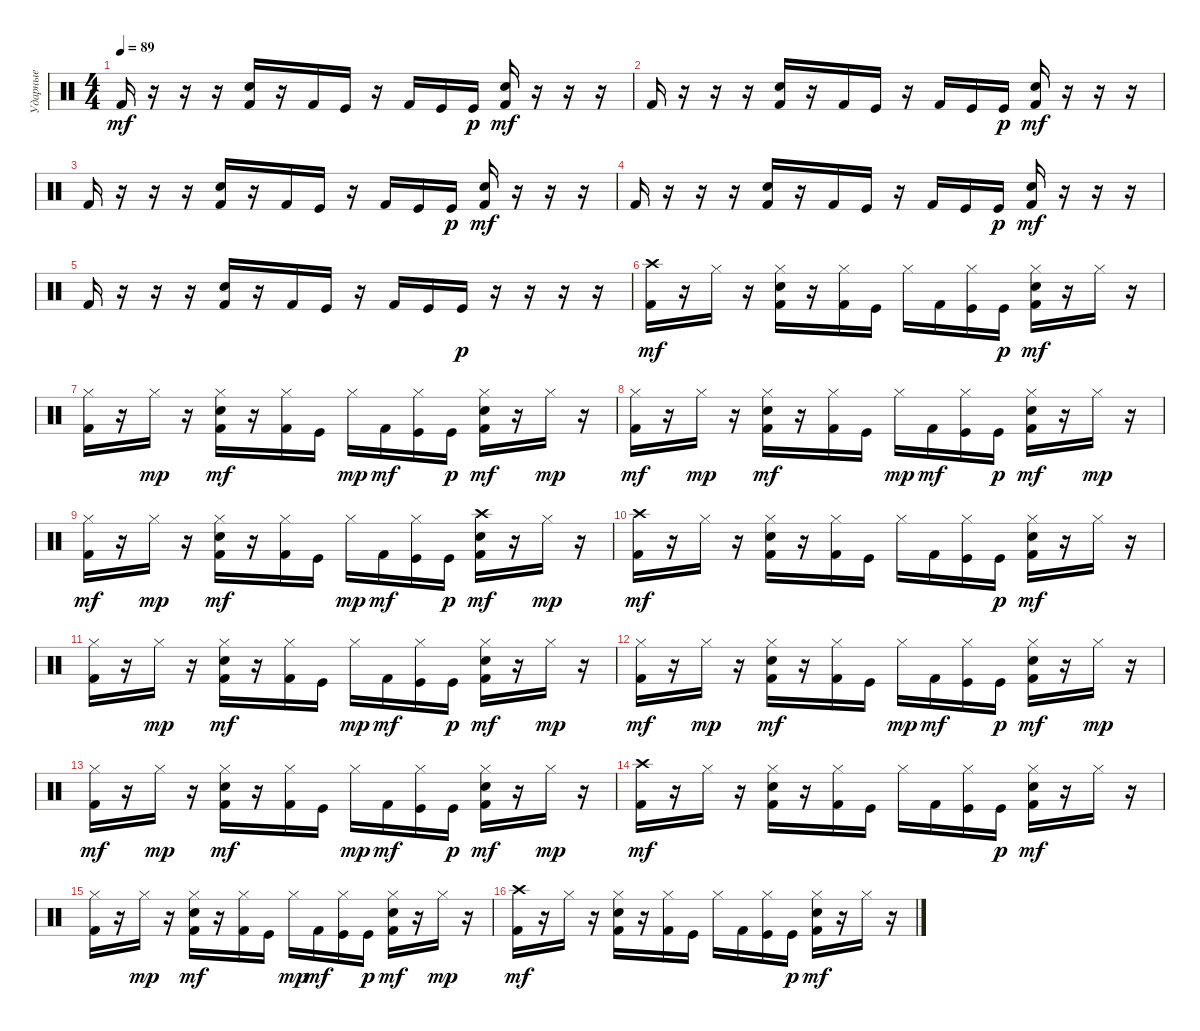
\track ("Ударные" "Ударные") {instrument percussion}
\staff {score}
\articulation defaults
\ts (4 4)
\tempo 89
\clef neutral
\ks c "Kick (hit) 2".16{dy mf}
r.16 r.16 r.16 ("Snare (hit) 2" "Kick (hit) 2").16 r.16 "Kick (hit) 2".16 "Kick (hit)".16 r.16 "Kick (hit) 2".16 "Kick (hit)".16 "Kick (hit)".16{dy p} ("Snare (hit) 2" "Kick (hit) 2").16{dy mf} r.16 r.16 r.16 |
"Kick (hit) 2".16 r.16 r.16 r.16 ("Snare (hit) 2" "Kick (hit) 2").16 r.16 "Kick (hit) 2".16 "Kick (hit)".16 r.16 "Kick (hit) 2".16 "Kick (hit)".16 "Kick (hit)".16{dy p} ("Snare (hit) 2" "Kick (hit) 2").16{dy mf} r.16 r.16 r.16 |
"Kick (hit) 2".16 r.16 r.16 r.16 ("Snare (hit) 2" "Kick (hit) 2").16 r.16 "Kick (hit) 2".16 "Kick (hit)".16 r.16 "Kick (hit) 2".16 "Kick (hit)".16 "Kick (hit)".16{dy p} ("Snare (hit) 2" "Kick (hit) 2").16{dy mf} r.16 r.16 r.16 |
"Kick (hit) 2".16 r.16 r.16 r.16 ("Snare (hit) 2" "Kick (hit) 2").16 r.16 "Kick (hit) 2".16 "Kick (hit)".16 r.16 "Kick (hit) 2".16 "Kick (hit)".16 "Kick (hit)".16{dy p} ("Snare (hit) 2" "Kick (hit) 2").16{dy mf} r.16 r.16 r.16 |
"Kick (hit) 2".16 r.16 r.16 r.16 ("Snare (hit) 2" "Kick (hit) 2").16 r.16 "Kick (hit) 2".16 "Kick (hit)".16 r.16 "Kick (hit) 2".16 "Kick (hit)".16 "Kick (hit)".16{dy p} r.16 r.16 r.16 r.16 |
("Crash high (hit)" "Kick (hit) 2").16{dy mf} r.16 "Hi-Hat (closed)".16 r.16 ("Hi-Hat (closed)" "Snare (hit) 2" "Kick (hit) 2").16 r.16 ("Hi-Hat (closed)" "Kick (hit) 2").16 "Kick (hit)".16 "Hi-Hat (closed)".16 "Kick (hit) 2".16 ("Hi-Hat (closed)" "Kick (hit)").16 "Kick (hit)".16{dy p} ("Hi-Hat (closed)" "Snare (hit) 2" "Kick (hit) 2").16{dy mf} r.16 "Hi-Hat (closed)".16 r.16 |
("Hi-Hat (closed)" "Kick (hit) 2").16 r.16 "Hi-Hat (closed)".16{dy mp} r.16 ("Hi-Hat (closed)" "Snare (hit) 2" "Kick (hit) 2").16{dy mf} r.16 ("Hi-Hat (closed)" "Kick (hit) 2").16 "Kick (hit)".16 "Hi-Hat (closed)".16{dy mp} "Kick (hit) 2".16{dy mf} ("Hi-Hat (closed)" "Kick (hit)").16 "Kick (hit)".16{dy p} ("Hi-Hat (closed)" "Snare (hit) 2" "Kick (hit) 2").16{dy mf} r.16 "Hi-Hat (closed)".16{dy mp} r.16 |
("Hi-Hat (closed)" "Kick (hit) 2").16{dy mf} r.16 "Hi-Hat (closed)".16{dy mp} r.16 ("Hi-Hat (closed)" "Snare (hit) 2" "Kick (hit) 2").16{dy mf} r.16 ("Hi-Hat (closed)" "Kick (hit) 2").16 "Kick (hit)".16 "Hi-Hat (closed)".16{dy mp} "Kick (hit) 2".16{dy mf} ("Hi-Hat (closed)" "Kick (hit)").16 "Kick (hit)".16{dy p} ("Hi-Hat (closed)" "Snare (hit) 2" "Kick (hit) 2").16{dy mf} r.16 "Hi-Hat (closed)".16{dy mp} r.16 |
("Hi-Hat (closed)" "Kick (hit) 2").16{dy mf} r.16 "Hi-Hat (closed)".16{dy mp} r.16 ("Hi-Hat (closed)" "Snare (hit) 2" "Kick (hit) 2").16{dy mf} r.16 ("Hi-Hat (closed)" "Kick (hit) 2").16 "Kick (hit)".16 "Hi-Hat (closed)".16{dy mp} "Kick (hit) 2".16{dy mf} ("Hi-Hat (closed)" "Kick (hit)").16 "Kick (hit)".16{dy p} ("Crash high (hit)" "Snare (hit) 2" "Kick (hit) 2").16{dy mf} r.16 "Hi-Hat (closed)".16{dy mp} r.16 |
("Crash high (hit)" "Kick (hit) 2").16{dy mf} r.16 "Hi-Hat (closed)".16 r.16 ("Hi-Hat (closed)" "Snare (hit) 2" "Kick (hit) 2").16 r.16 ("Hi-Hat (closed)" "Kick (hit) 2").16 "Kick (hit)".16 "Hi-Hat (closed)".16 "Kick (hit) 2".16 ("Hi-Hat (closed)" "Kick (hit)").16 "Kick (hit)".16{dy p} ("Hi-Hat (closed)" "Snare (hit) 2" "Kick (hit) 2").16{dy mf} r.16 "Hi-Hat (closed)".16 r.16 |
("Hi-Hat (closed)" "Kick (hit) 2").16 r.16 "Hi-Hat (closed)".16{dy mp} r.16 ("Hi-Hat (closed)" "Snare (hit) 2" "Kick (hit) 2").16{dy mf} r.16 ("Hi-Hat (closed)" "Kick (hit) 2").16 "Kick (hit)".16 "Hi-Hat (closed)".16{dy mp} "Kick (hit) 2".16{dy mf} ("Hi-Hat (closed)" "Kick (hit)").16 "Kick (hit)".16{dy p} ("Hi-Hat (closed)" "Snare (hit) 2" "Kick (hit) 2").16{dy mf} r.16 "Hi-Hat (closed)".16{dy mp} r.16 |
("Hi-Hat (closed)" "Kick (hit) 2").16{dy mf} r.16 "Hi-Hat (closed)".16{dy mp} r.16 ("Hi-Hat (closed)" "Snare (hit) 2" "Kick (hit) 2").16{dy mf} r.16 ("Hi-Hat (closed)" "Kick (hit) 2").16 "Kick (hit)".16 "Hi-Hat (closed)".16{dy mp} "Kick (hit) 2".16{dy mf} ("Hi-Hat (closed)" "Kick (hit)").16 "Kick (hit)".16{dy p} ("Hi-Hat (closed)" "Snare (hit) 2" "Kick (hit) 2").16{dy mf} r.16 "Hi-Hat (closed)".16{dy mp} r.16 |
("Hi-Hat (closed)" "Kick (hit) 2").16{dy mf} r.16 "Hi-Hat (closed)".16{dy mp} r.16 ("Hi-Hat (closed)" "Snare (hit) 2" "Kick (hit) 2").16{dy mf} r.16 ("Hi-Hat (closed)" "Kick (hit) 2").16 "Kick (hit)".16 "Hi-Hat (closed)".16{dy mp} "Kick (hit) 2".16{dy mf} ("Hi-Hat (closed)" "Kick (hit)").16 "Kick (hit)".16{dy p} ("Hi-Hat (closed)" "Snare (hit) 2" "Kick (hit) 2").16{dy mf} r.16 "Hi-Hat (closed)".16{dy mp} r.16 |
("Crash high (hit)" "Kick (hit) 2").16{dy mf} r.16 "Hi-Hat (closed)".16 r.16 ("Hi-Hat (closed)" "Snare (hit) 2" "Kick (hit) 2").16 r.16 ("Hi-Hat (closed)" "Kick (hit) 2").16 "Kick (hit)".16 "Hi-Hat (closed)".16 "Kick (hit) 2".16 ("Hi-Hat (closed)" "Kick (hit)").16 "Kick (hit)".16{dy p} ("Hi-Hat (closed)" "Snare (hit) 2" "Kick (hit) 2").16{dy mf} r.16 "Hi-Hat (closed)".16 r.16 |
("Hi-Hat (closed)" "Kick (hit) 2").16 r.16 "Hi-Hat (closed)".16{dy mp} r.16 ("Hi-Hat (closed)" "Snare (hit) 2" "Kick (hit) 2").16{dy mf} r.16 ("Hi-Hat (closed)" "Kick (hit) 2").16 "Kick (hit)".16 "Hi-Hat (closed)".16{dy mp} "Kick (hit) 2".16{dy mf} ("Hi-Hat (closed)" "Kick (hit)").16 "Kick (hit)".16{dy p} ("Hi-Hat (closed)" "Snare (hit) 2" "Kick (hit) 2").16{dy mf} r.16 "Hi-Hat (closed)".16{dy mp} r.16 |
("Crash high (hit)" "Kick (hit) 2").16{dy mf} r.16 "Hi-Hat (closed)".16 r.16 ("Hi-Hat (closed)" "Snare (hit) 2" "Kick (hit) 2").16 r.16 ("Hi-Hat (closed)" "Kick (hit) 2").16 "Kick (hit)".16 "Hi-Hat (closed)".16 "Kick (hit) 2".16 ("Hi-Hat (closed)" "Kick (hit)").16 "Kick (hit)".16{dy p} ("Hi-Hat (closed)" "Snare (hit) 2" "Kick (hit) 2").16{dy mf} r.16 "Hi-Hat (closed)".16 r.16
